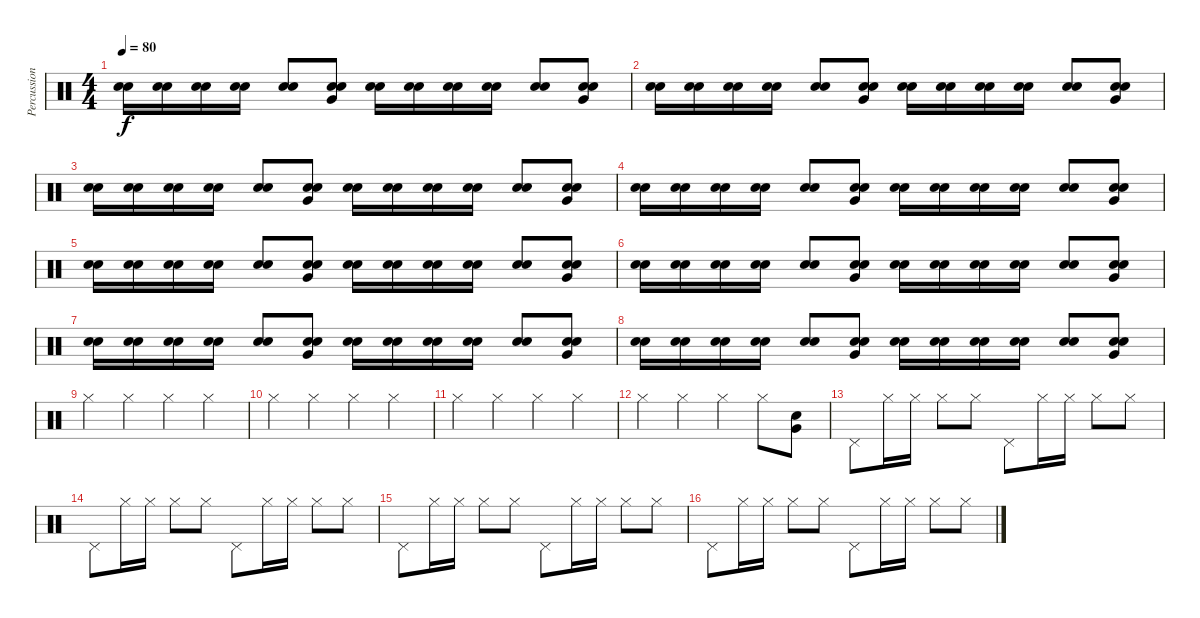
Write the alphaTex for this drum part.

\track ("Percussions" "Percussion") {instrument percussion}
\staff {score}
\articulation defaults
\ts (4 4)
\tempo 80
\clef neutral
\ks c
("Electric Snare (hit)" "Electric Snare (hit)").16{dy f} ("Electric Snare (hit)" "Electric Snare (hit)").16 ("Electric Snare (hit)" "Electric Snare (hit)").16 ("Electric Snare (hit)" "Electric Snare (hit)").16 ("Electric Snare (hit)" "Electric Snare (hit)").8 ("Electric Snare (hit)" "Electric Snare (hit)" "Very Low Tom (hit)").8 ("Electric Snare (hit)" "Electric Snare (hit)").16 ("Electric Snare (hit)" "Electric Snare (hit)").16 ("Electric Snare (hit)" "Electric Snare (hit)").16 ("Electric Snare (hit)" "Electric Snare (hit)").16 ("Electric Snare (hit)" "Electric Snare (hit)").8 ("Electric Snare (hit)" "Electric Snare (hit)" "Very Low Tom (hit)").8 |
("Electric Snare (hit)" "Electric Snare (hit)").16 ("Electric Snare (hit)" "Electric Snare (hit)").16 ("Electric Snare (hit)" "Electric Snare (hit)").16 ("Electric Snare (hit)" "Electric Snare (hit)").16 ("Electric Snare (hit)" "Electric Snare (hit)").8 ("Electric Snare (hit)" "Electric Snare (hit)" "Very Low Tom (hit)").8 ("Electric Snare (hit)" "Electric Snare (hit)").16 ("Electric Snare (hit)" "Electric Snare (hit)").16 ("Electric Snare (hit)" "Electric Snare (hit)").16 ("Electric Snare (hit)" "Electric Snare (hit)").16 ("Electric Snare (hit)" "Electric Snare (hit)").8 ("Electric Snare (hit)" "Electric Snare (hit)" "Very Low Tom (hit)").8 |
("Electric Snare (hit)" "Electric Snare (hit)").16 ("Electric Snare (hit)" "Electric Snare (hit)").16 ("Electric Snare (hit)" "Electric Snare (hit)").16 ("Electric Snare (hit)" "Electric Snare (hit)").16 ("Electric Snare (hit)" "Electric Snare (hit)").8 ("Electric Snare (hit)" "Electric Snare (hit)" "Very Low Tom (hit)").8 ("Electric Snare (hit)" "Electric Snare (hit)").16 ("Electric Snare (hit)" "Electric Snare (hit)").16 ("Electric Snare (hit)" "Electric Snare (hit)").16 ("Electric Snare (hit)" "Electric Snare (hit)").16 ("Electric Snare (hit)" "Electric Snare (hit)").8 ("Electric Snare (hit)" "Electric Snare (hit)" "Very Low Tom (hit)").8 |
("Electric Snare (hit)" "Electric Snare (hit)").16 ("Electric Snare (hit)" "Electric Snare (hit)").16 ("Electric Snare (hit)" "Electric Snare (hit)").16 ("Electric Snare (hit)" "Electric Snare (hit)").16 ("Electric Snare (hit)" "Electric Snare (hit)").8 ("Electric Snare (hit)" "Electric Snare (hit)" "Very Low Tom (hit)").8 ("Electric Snare (hit)" "Electric Snare (hit)").16 ("Electric Snare (hit)" "Electric Snare (hit)").16 ("Electric Snare (hit)" "Electric Snare (hit)").16 ("Electric Snare (hit)" "Electric Snare (hit)").16 ("Electric Snare (hit)" "Electric Snare (hit)").8 ("Electric Snare (hit)" "Electric Snare (hit)" "Very Low Tom (hit)").8 |
("Electric Snare (hit)" "Electric Snare (hit)").16 ("Electric Snare (hit)" "Electric Snare (hit)").16 ("Electric Snare (hit)" "Electric Snare (hit)").16 ("Electric Snare (hit)" "Electric Snare (hit)").16 ("Electric Snare (hit)" "Electric Snare (hit)").8 ("Electric Snare (hit)" "Electric Snare (hit)" "Very Low Tom (hit)").8 ("Electric Snare (hit)" "Electric Snare (hit)").16 ("Electric Snare (hit)" "Electric Snare (hit)").16 ("Electric Snare (hit)" "Electric Snare (hit)").16 ("Electric Snare (hit)" "Electric Snare (hit)").16 ("Electric Snare (hit)" "Electric Snare (hit)").8 ("Electric Snare (hit)" "Electric Snare (hit)" "Very Low Tom (hit)").8 |
("Electric Snare (hit)" "Electric Snare (hit)").16 ("Electric Snare (hit)" "Electric Snare (hit)").16 ("Electric Snare (hit)" "Electric Snare (hit)").16 ("Electric Snare (hit)" "Electric Snare (hit)").16 ("Electric Snare (hit)" "Electric Snare (hit)").8 ("Electric Snare (hit)" "Electric Snare (hit)" "Very Low Tom (hit)").8 ("Electric Snare (hit)" "Electric Snare (hit)").16 ("Electric Snare (hit)" "Electric Snare (hit)").16 ("Electric Snare (hit)" "Electric Snare (hit)").16 ("Electric Snare (hit)" "Electric Snare (hit)").16 ("Electric Snare (hit)" "Electric Snare (hit)").8 ("Electric Snare (hit)" "Electric Snare (hit)" "Very Low Tom (hit)").8 |
("Electric Snare (hit)" "Electric Snare (hit)").16 ("Electric Snare (hit)" "Electric Snare (hit)").16 ("Electric Snare (hit)" "Electric Snare (hit)").16 ("Electric Snare (hit)" "Electric Snare (hit)").16 ("Electric Snare (hit)" "Electric Snare (hit)").8 ("Electric Snare (hit)" "Electric Snare (hit)" "Very Low Tom (hit)").8 ("Electric Snare (hit)" "Electric Snare (hit)").16 ("Electric Snare (hit)" "Electric Snare (hit)").16 ("Electric Snare (hit)" "Electric Snare (hit)").16 ("Electric Snare (hit)" "Electric Snare (hit)").16 ("Electric Snare (hit)" "Electric Snare (hit)").8 ("Electric Snare (hit)" "Electric Snare (hit)" "Very Low Tom (hit)").8 |
("Electric Snare (hit)" "Electric Snare (hit)").16 ("Electric Snare (hit)" "Electric Snare (hit)").16 ("Electric Snare (hit)" "Electric Snare (hit)").16 ("Electric Snare (hit)" "Electric Snare (hit)").16 ("Electric Snare (hit)" "Electric Snare (hit)").8 ("Electric Snare (hit)" "Electric Snare (hit)" "Very Low Tom (hit)").8 ("Electric Snare (hit)" "Electric Snare (hit)").16 ("Electric Snare (hit)" "Electric Snare (hit)").16 ("Electric Snare (hit)" "Electric Snare (hit)").16 ("Electric Snare (hit)" "Electric Snare (hit)").16 ("Electric Snare (hit)" "Electric Snare (hit)").8 ("Electric Snare (hit)" "Electric Snare (hit)" "Very Low Tom (hit)").8 |
"Hi-Hat (closed)".4 "Hi-Hat (closed)".4 "Hi-Hat (closed)".4 "Hi-Hat (closed)".4 |
"Hi-Hat (closed)".4 "Hi-Hat (closed)".4 "Hi-Hat (closed)".4 "Hi-Hat (closed)".4 |
"Hi-Hat (closed)".4 "Hi-Hat (closed)".4 "Hi-Hat (closed)".4 "Hi-Hat (closed)".4 |
"Hi-Hat (closed)".4 "Hi-Hat (closed)".4 "Hi-Hat (closed)".4 "Hi-Hat (closed)".8 ("Electric Snare (hit)" "Very Low Tom (hit)").8 |
"Pedal Hi-Hat (hit)".8 "Hi-Hat (closed)".16 "Hi-Hat (closed)".16 "Hi-Hat (closed)".8 "Hi-Hat (closed)".8 "Pedal Hi-Hat (hit)".8 "Hi-Hat (closed)".16 "Hi-Hat (closed)".16 "Hi-Hat (closed)".8 "Hi-Hat (closed)".8 |
"Pedal Hi-Hat (hit)".8 "Hi-Hat (closed)".16 "Hi-Hat (closed)".16 "Hi-Hat (closed)".8 "Hi-Hat (closed)".8 "Pedal Hi-Hat (hit)".8 "Hi-Hat (closed)".16 "Hi-Hat (closed)".16 "Hi-Hat (closed)".8 "Hi-Hat (closed)".8 |
"Pedal Hi-Hat (hit)".8 "Hi-Hat (closed)".16 "Hi-Hat (closed)".16 "Hi-Hat (closed)".8 "Hi-Hat (closed)".8 "Pedal Hi-Hat (hit)".8 "Hi-Hat (closed)".16 "Hi-Hat (closed)".16 "Hi-Hat (closed)".8 "Hi-Hat (closed)".8 |
"Pedal Hi-Hat (hit)".8 "Hi-Hat (closed)".16 "Hi-Hat (closed)".16 "Hi-Hat (closed)".8 "Hi-Hat (closed)".8 "Pedal Hi-Hat (hit)".8 "Hi-Hat (closed)".16 "Hi-Hat (closed)".16 "Hi-Hat (closed)".8 "Hi-Hat (closed)".8
